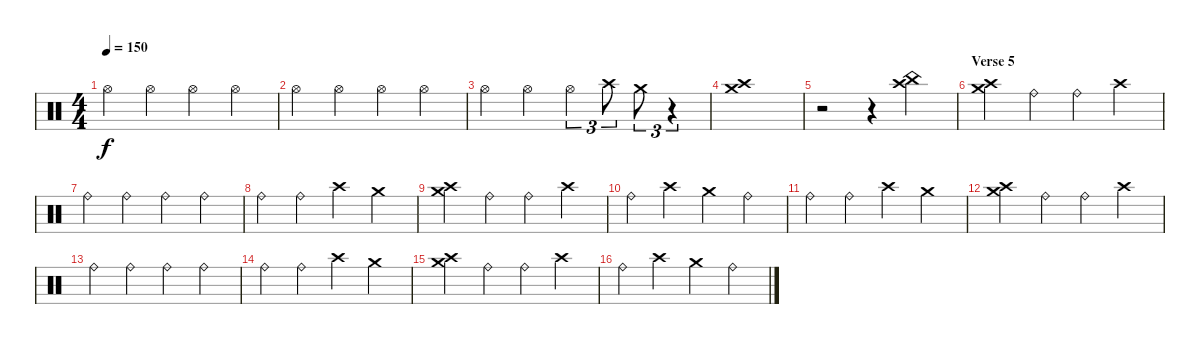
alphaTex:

\track "" {instrument percussion}
\staff {score}
\articulation defaults
\ts (4 4)
\tempo 150
\clef neutral
\ks c "Hi-Hat (open)".4{dy f} "Hi-Hat (open)".4 "Hi-Hat (open)".4 "Hi-Hat (open)".4
|
"Hi-Hat (open)".4 "Hi-Hat (open)".4 "Hi-Hat (open)".4 "Hi-Hat (open)".4 |
"Hi-Hat (open)".4 "Hi-Hat (open)".4 "Hi-Hat (open)".4{tu (3 2)} "Crash high (hit)".8{tu (3 2)} "Crash medium (hit)".8{tu (3 2)} r.4{tu (3 2)} |
("Crash medium (hit)" "Crash high (hit)").1 |
r.2 r.4 ("Crash high (hit)" "China (hit)").4 |
\section ("" "Verse 5")
("Crash medium (hit)" "Crash high (hit)").4 "Ride (bell)".4 "Ride (bell)".4 "Crash high (hit)".4 |
"Ride (bell)".4 "Ride (bell)".4 "Ride (bell)".4 "Ride (bell)".4 |
"Ride (bell)".4 "Ride (bell)".4 "Crash high (hit)".4 "Crash medium (hit)".4 |
("Crash medium (hit)" "Crash high (hit)").4 "Ride (bell)".4 "Ride (bell)".4 "Crash high (hit)".4 |
"Ride (bell)".4 "Crash high (hit)".4 "Crash medium (hit)".4 "Ride (bell)".4 |
"Ride (bell)".4 "Ride (bell)".4 "Crash high (hit)".4 "Crash medium (hit)".4 |
("Crash medium (hit)" "Crash high (hit)").4 "Ride (bell)".4 "Ride (bell)".4 "Crash high (hit)".4 |
"Ride (bell)".4 "Ride (bell)".4 "Ride (bell)".4 "Ride (bell)".4 |
"Ride (bell)".4 "Ride (bell)".4 "Crash high (hit)".4 "Crash medium (hit)".4 |
("Crash medium (hit)" "Crash high (hit)").4 "Ride (bell)".4 "Ride (bell)".4 "Crash high (hit)".4 |
"Ride (bell)".4 "Crash high (hit)".4 "Crash medium (hit)".4 "Ride (bell)".4
